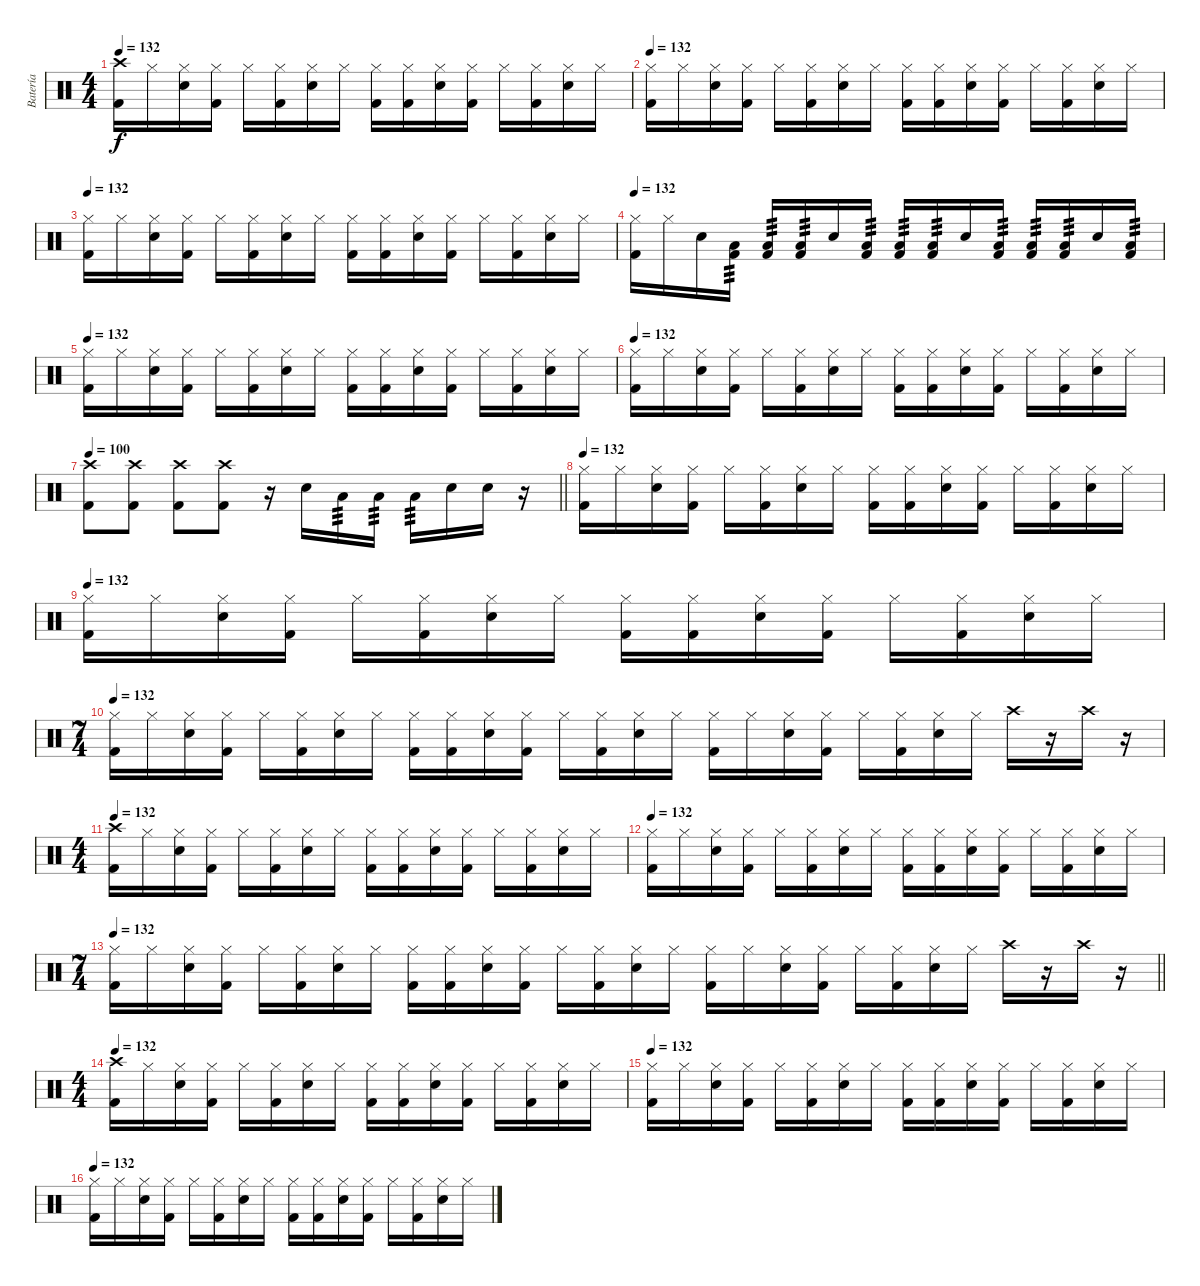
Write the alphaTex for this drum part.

\track ("Batería" "Batería") {instrument percussion}
\staff {score}
\articulation defaults
\ts (4 4)
\tempo 132
\clef neutral
\ks c
("Crash high (hit)" "Kick (hit) 2").16{dy f} "Hi-Hat (closed)".16 ("Hi-Hat (closed)" "Snare (hit) 2").16 ("Hi-Hat (closed)" "Kick (hit) 2").16 "Hi-Hat (closed)".16 ("Hi-Hat (closed)" "Kick (hit) 2").16 ("Hi-Hat (closed)" "Snare (hit) 2").16 "Hi-Hat (closed)".16 ("Hi-Hat (closed)" "Kick (hit) 2").16 ("Hi-Hat (closed)" "Kick (hit) 2").16 ("Hi-Hat (closed)" "Snare (hit) 2").16 ("Hi-Hat (closed)" "Kick (hit) 2").16 "Hi-Hat (closed)".16 ("Hi-Hat (closed)" "Kick (hit) 2").16 ("Hi-Hat (closed)" "Snare (hit) 2").16 "Hi-Hat (closed)".16 |
\tempo 132
("Hi-Hat (closed)" "Kick (hit) 2").16 "Hi-Hat (closed)".16 ("Hi-Hat (closed)" "Snare (hit) 2").16 ("Hi-Hat (closed)" "Kick (hit) 2").16 "Hi-Hat (closed)".16 ("Hi-Hat (closed)" "Kick (hit) 2").16 ("Hi-Hat (closed)" "Snare (hit) 2").16 "Hi-Hat (closed)".16 ("Hi-Hat (closed)" "Kick (hit) 2").16 ("Hi-Hat (closed)" "Kick (hit) 2").16 ("Hi-Hat (closed)" "Snare (hit) 2").16 ("Hi-Hat (closed)" "Kick (hit) 2").16 "Hi-Hat (closed)".16 ("Hi-Hat (closed)" "Kick (hit) 2").16 ("Hi-Hat (closed)" "Snare (hit) 2").16 "Hi-Hat (closed)".16 |
\tempo 132
("Hi-Hat (closed)" "Kick (hit) 2").16 "Hi-Hat (closed)".16 ("Hi-Hat (closed)" "Snare (hit) 2").16 ("Hi-Hat (closed)" "Kick (hit) 2").16 "Hi-Hat (closed)".16 ("Hi-Hat (closed)" "Kick (hit) 2").16 ("Hi-Hat (closed)" "Snare (hit) 2").16 "Hi-Hat (closed)".16 ("Hi-Hat (closed)" "Kick (hit) 2").16 ("Hi-Hat (closed)" "Kick (hit) 2").16 ("Hi-Hat (closed)" "Snare (hit) 2").16 ("Hi-Hat (closed)" "Kick (hit) 2").16 "Hi-Hat (closed)".16 ("Hi-Hat (closed)" "Kick (hit) 2").16 ("Hi-Hat (closed)" "Snare (hit) 2").16 "Hi-Hat (closed)".16 |
\tempo 132
("Hi-Hat (closed)" "Kick (hit) 2").16 "Hi-Hat (closed)".16 "Snare (hit) 2".16 ("Low Tom (hit)" "Kick (hit) 2").16{tp 3} ("Low Tom (hit)" "Kick (hit) 2").16{tp 3} ("Low Tom (hit)" "Kick (hit) 2").16{tp 3} "Snare (hit) 2".16 ("Low Tom (hit)" "Kick (hit) 2").16{tp 3} ("Low Tom (hit)" "Kick (hit) 2").16{tp 3} ("Low Tom (hit)" "Kick (hit) 2").16{tp 3} "Snare (hit) 2".16 ("Low Tom (hit)" "Kick (hit) 2").16{tp 3} ("Low Tom (hit)" "Kick (hit) 2").16{tp 3} ("Low Tom (hit)" "Kick (hit) 2").16{tp 3} "Snare (hit) 2".16 ("Low Tom (hit)" "Kick (hit) 2").16{tp 3} |
\tempo 132
("Hi-Hat (closed)" "Kick (hit) 2").16 "Hi-Hat (closed)".16 ("Hi-Hat (closed)" "Snare (hit) 2").16 ("Hi-Hat (closed)" "Kick (hit) 2").16 "Hi-Hat (closed)".16 ("Hi-Hat (closed)" "Kick (hit) 2").16 ("Hi-Hat (closed)" "Snare (hit) 2").16 "Hi-Hat (closed)".16 ("Hi-Hat (closed)" "Kick (hit) 2").16 ("Hi-Hat (closed)" "Kick (hit) 2").16 ("Hi-Hat (closed)" "Snare (hit) 2").16 ("Hi-Hat (closed)" "Kick (hit) 2").16 "Hi-Hat (closed)".16 ("Hi-Hat (closed)" "Kick (hit) 2").16 ("Hi-Hat (closed)" "Snare (hit) 2").16 "Hi-Hat (closed)".16 |
\tempo 132
("Hi-Hat (closed)" "Kick (hit) 2").16 "Hi-Hat (closed)".16 ("Hi-Hat (closed)" "Snare (hit) 2").16 ("Hi-Hat (closed)" "Kick (hit) 2").16 "Hi-Hat (closed)".16 ("Hi-Hat (closed)" "Kick (hit) 2").16 ("Hi-Hat (closed)" "Snare (hit) 2").16 "Hi-Hat (closed)".16 ("Hi-Hat (closed)" "Kick (hit) 2").16 ("Hi-Hat (closed)" "Kick (hit) 2").16 ("Hi-Hat (closed)" "Snare (hit) 2").16 ("Hi-Hat (closed)" "Kick (hit) 2").16 "Hi-Hat (closed)".16 ("Hi-Hat (closed)" "Kick (hit) 2").16 ("Hi-Hat (closed)" "Snare (hit) 2").16 "Hi-Hat (closed)".16 |
\tempo 100
\barLineRight lightlight
("Crash high (hit)" "Kick (hit) 2").8 ("Crash high (hit)" "Kick (hit) 2").8 ("Crash high (hit)" "Kick (hit) 2").8 ("Crash high (hit)" "Kick (hit) 2").8 r.16 "Snare (hit) 2".16 "Low Tom (hit)".16{tp 3} "Low Tom (hit)".16{tp 3} "Low Tom (hit)".16{tp 3} "Snare (hit) 2".16 "Snare (hit) 2".16 r.16 |
\tempo 132
("Hi-Hat (closed)" "Kick (hit) 2").16 "Hi-Hat (closed)".16 ("Hi-Hat (closed)" "Snare (hit) 2").16 ("Hi-Hat (closed)" "Kick (hit) 2").16 "Hi-Hat (closed)".16 ("Hi-Hat (closed)" "Kick (hit) 2").16 ("Hi-Hat (closed)" "Snare (hit) 2").16 "Hi-Hat (closed)".16 ("Hi-Hat (closed)" "Kick (hit) 2").16 ("Hi-Hat (closed)" "Kick (hit) 2").16 ("Hi-Hat (closed)" "Snare (hit) 2").16 ("Hi-Hat (closed)" "Kick (hit) 2").16 "Hi-Hat (closed)".16 ("Hi-Hat (closed)" "Kick (hit) 2").16 ("Hi-Hat (closed)" "Snare (hit) 2").16 "Hi-Hat (closed)".16 |
\tempo 132
("Hi-Hat (closed)" "Kick (hit) 2").16 "Hi-Hat (closed)".16 ("Hi-Hat (closed)" "Snare (hit) 2").16 ("Hi-Hat (closed)" "Kick (hit) 2").16 "Hi-Hat (closed)".16 ("Hi-Hat (closed)" "Kick (hit) 2").16 ("Hi-Hat (closed)" "Snare (hit) 2").16 "Hi-Hat (closed)".16 ("Hi-Hat (closed)" "Kick (hit) 2").16 ("Hi-Hat (closed)" "Kick (hit) 2").16 ("Hi-Hat (closed)" "Snare (hit) 2").16 ("Hi-Hat (closed)" "Kick (hit) 2").16 "Hi-Hat (closed)".16 ("Hi-Hat (closed)" "Kick (hit) 2").16 ("Hi-Hat (closed)" "Snare (hit) 2").16 "Hi-Hat (closed)".16 |
\ts (7 4)
\tempo 132
("Hi-Hat (closed)" "Kick (hit) 2").16 "Hi-Hat (closed)".16 ("Hi-Hat (closed)" "Snare (hit) 2").16 ("Hi-Hat (closed)" "Kick (hit) 2").16 "Hi-Hat (closed)".16 ("Hi-Hat (closed)" "Kick (hit) 2").16 ("Hi-Hat (closed)" "Snare (hit) 2").16 "Hi-Hat (closed)".16 ("Hi-Hat (closed)" "Kick (hit) 2").16 ("Hi-Hat (closed)" "Kick (hit) 2").16 ("Hi-Hat (closed)" "Snare (hit) 2").16 ("Hi-Hat (closed)" "Kick (hit) 2").16 "Hi-Hat (closed)".16 ("Hi-Hat (closed)" "Kick (hit) 2").16 ("Hi-Hat (closed)" "Snare (hit) 2").16 "Hi-Hat (closed)".16 ("Hi-Hat (closed)" "Kick (hit) 2").16 "Hi-Hat (closed)".16 ("Hi-Hat (closed)" "Snare (hit) 2").16 ("Hi-Hat (closed)" "Kick (hit) 2").16 "Hi-Hat (closed)".16 ("Hi-Hat (closed)" "Kick (hit) 2").16 ("Hi-Hat (closed)" "Snare (hit) 2").16 "Hi-Hat (closed)".16 "Crash high (hit)".16 r.16 "Crash high (hit)".16 r.16 |
\ts (4 4)
\tempo 132
("Crash high (hit)" "Kick (hit) 2").16 "Hi-Hat (closed)".16 ("Hi-Hat (closed)" "Snare (hit) 2").16 ("Hi-Hat (closed)" "Kick (hit) 2").16 "Hi-Hat (closed)".16 ("Hi-Hat (closed)" "Kick (hit) 2").16 ("Hi-Hat (closed)" "Snare (hit) 2").16 "Hi-Hat (closed)".16 ("Hi-Hat (closed)" "Kick (hit) 2").16 ("Hi-Hat (closed)" "Kick (hit) 2").16 ("Hi-Hat (closed)" "Snare (hit) 2").16 ("Hi-Hat (closed)" "Kick (hit) 2").16 "Hi-Hat (closed)".16 ("Hi-Hat (closed)" "Kick (hit) 2").16 ("Hi-Hat (closed)" "Snare (hit) 2").16 "Hi-Hat (closed)".16 |
\tempo 132
("Hi-Hat (closed)" "Kick (hit) 2").16 "Hi-Hat (closed)".16 ("Hi-Hat (closed)" "Snare (hit) 2").16 ("Hi-Hat (closed)" "Kick (hit) 2").16 "Hi-Hat (closed)".16 ("Hi-Hat (closed)" "Kick (hit) 2").16 ("Hi-Hat (closed)" "Snare (hit) 2").16 "Hi-Hat (closed)".16 ("Hi-Hat (closed)" "Kick (hit) 2").16 ("Hi-Hat (closed)" "Kick (hit) 2").16 ("Hi-Hat (closed)" "Snare (hit) 2").16 ("Hi-Hat (closed)" "Kick (hit) 2").16 "Hi-Hat (closed)".16 ("Hi-Hat (closed)" "Kick (hit) 2").16 ("Hi-Hat (closed)" "Snare (hit) 2").16 "Hi-Hat (closed)".16 |
\ts (7 4)
\tempo 132
\barLineRight lightlight
("Hi-Hat (closed)" "Kick (hit) 2").16 "Hi-Hat (closed)".16 ("Hi-Hat (closed)" "Snare (hit) 2").16 ("Hi-Hat (closed)" "Kick (hit) 2").16 "Hi-Hat (closed)".16 ("Hi-Hat (closed)" "Kick (hit) 2").16 ("Hi-Hat (closed)" "Snare (hit) 2").16 "Hi-Hat (closed)".16 ("Hi-Hat (closed)" "Kick (hit) 2").16 ("Hi-Hat (closed)" "Kick (hit) 2").16 ("Hi-Hat (closed)" "Snare (hit) 2").16 ("Hi-Hat (closed)" "Kick (hit) 2").16 "Hi-Hat (closed)".16 ("Hi-Hat (closed)" "Kick (hit) 2").16 ("Hi-Hat (closed)" "Snare (hit) 2").16 "Hi-Hat (closed)".16 ("Hi-Hat (closed)" "Kick (hit) 2").16 "Hi-Hat (closed)".16 ("Hi-Hat (closed)" "Snare (hit) 2").16 ("Hi-Hat (closed)" "Kick (hit) 2").16 "Hi-Hat (closed)".16 ("Hi-Hat (closed)" "Kick (hit) 2").16 ("Hi-Hat (closed)" "Snare (hit) 2").16 "Hi-Hat (closed)".16 "Crash high (hit)".16 r.16 "Crash high (hit)".16 r.16 |
\ts (4 4)
\tempo 132
("Crash high (hit)" "Kick (hit) 2").16 "Hi-Hat (closed)".16 ("Hi-Hat (closed)" "Snare (hit) 2").16 ("Hi-Hat (closed)" "Kick (hit) 2").16 "Hi-Hat (closed)".16 ("Hi-Hat (closed)" "Kick (hit) 2").16 ("Hi-Hat (closed)" "Snare (hit) 2").16 "Hi-Hat (closed)".16 ("Hi-Hat (closed)" "Kick (hit) 2").16 ("Hi-Hat (closed)" "Kick (hit) 2").16 ("Hi-Hat (closed)" "Snare (hit) 2").16 ("Hi-Hat (closed)" "Kick (hit) 2").16 "Hi-Hat (closed)".16 ("Hi-Hat (closed)" "Kick (hit) 2").16 ("Hi-Hat (closed)" "Snare (hit) 2").16 "Hi-Hat (closed)".16 |
\tempo 132
("Hi-Hat (closed)" "Kick (hit) 2").16 "Hi-Hat (closed)".16 ("Hi-Hat (closed)" "Snare (hit) 2").16 ("Hi-Hat (closed)" "Kick (hit) 2").16 "Hi-Hat (closed)".16 ("Hi-Hat (closed)" "Kick (hit) 2").16 ("Hi-Hat (closed)" "Snare (hit) 2").16 "Hi-Hat (closed)".16 ("Hi-Hat (closed)" "Kick (hit) 2").16 ("Hi-Hat (closed)" "Kick (hit) 2").16 ("Hi-Hat (closed)" "Snare (hit) 2").16 ("Hi-Hat (closed)" "Kick (hit) 2").16 "Hi-Hat (closed)".16 ("Hi-Hat (closed)" "Kick (hit) 2").16 ("Hi-Hat (closed)" "Snare (hit) 2").16 "Hi-Hat (closed)".16 |
\tempo 132
("Hi-Hat (closed)" "Kick (hit) 2").16 "Hi-Hat (closed)".16 ("Hi-Hat (closed)" "Snare (hit) 2").16 ("Hi-Hat (closed)" "Kick (hit) 2").16 "Hi-Hat (closed)".16 ("Hi-Hat (closed)" "Kick (hit) 2").16 ("Hi-Hat (closed)" "Snare (hit) 2").16 "Hi-Hat (closed)".16 ("Hi-Hat (closed)" "Kick (hit) 2").16 ("Hi-Hat (closed)" "Kick (hit) 2").16 ("Hi-Hat (closed)" "Snare (hit) 2").16 ("Hi-Hat (closed)" "Kick (hit) 2").16 "Hi-Hat (closed)".16 ("Hi-Hat (closed)" "Kick (hit) 2").16 ("Hi-Hat (closed)" "Snare (hit) 2").16 "Hi-Hat (closed)".16
